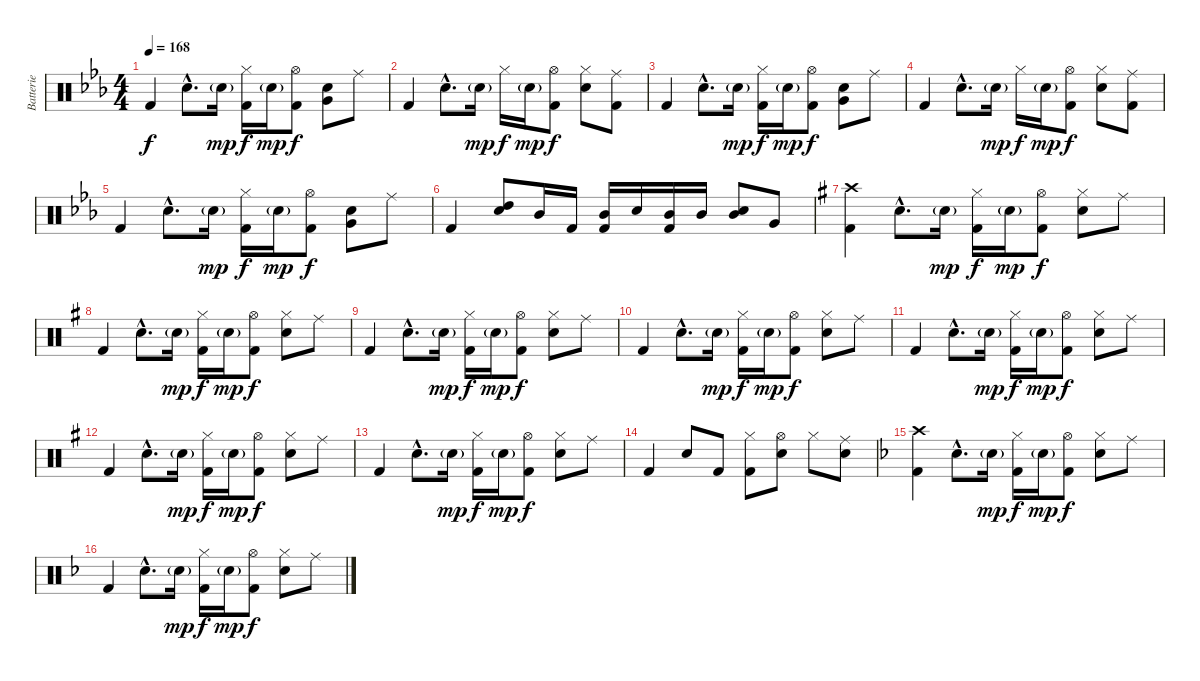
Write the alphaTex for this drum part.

\track ("Batterie" "Batterie") {instrument percussion}
\staff {score}
\articulation defaults
\ts (4 4)
\tempo 168
\clef neutral
\ks eb "Kick (hit) 2".4{dy f} "Snare (hit) 2"{hac}.8{d} "Snare (hit) 2"{g}.16{dy mp}
("Hi-Hat (closed)" "Kick (hit) 2").16{dy f} "Snare (hit) 2"{g}.16{dy mp} ("Hi-Hat (open)" "Kick (hit) 2").8{dy f} ("Snare (hit) 2" "Very Low Tom (hit)").8 "Ride (middle)".8 |
"Kick (hit) 2".4 "Snare (hit) 2"{hac}.8{d} "Snare (hit) 2"{g}.16{dy mp} "Hi-Hat (closed)".16{dy f} "Snare (hit) 2"{g}.16{dy mp} ("Hi-Hat (open)" "Kick (hit) 2").8{dy f} ("Hi-Hat (closed)" "Snare (hit) 2").8 ("Ride (middle)" "Kick (hit) 2").8 |
"Kick (hit) 2".4 "Snare (hit) 2"{hac}.8{d} "Snare (hit) 2"{g}.16{dy mp} ("Hi-Hat (closed)" "Kick (hit) 2").16{dy f} "Snare (hit) 2"{g}.16{dy mp} ("Hi-Hat (open)" "Kick (hit) 2").8{dy f} ("Snare (hit) 2" "Very Low Tom (hit)").8 "Ride (middle)".8 |
"Kick (hit) 2".4 "Snare (hit) 2"{hac}.8{d} "Snare (hit) 2"{g}.16{dy mp} "Hi-Hat (closed)".16{dy f} "Snare (hit) 2"{g}.16{dy mp} ("Hi-Hat (open)" "Kick (hit) 2").8{dy f} ("Hi-Hat (closed)" "Snare (hit) 2").8 ("Ride (middle)" "Kick (hit) 2").8 |
"Kick (hit) 2".4 "Snare (hit) 2"{hac}.8{d} "Snare (hit) 2"{g}.16{dy mp} ("Hi-Hat (closed)" "Kick (hit) 2").16{dy f} "Snare (hit) 2"{g}.16{dy mp} ("Hi-Hat (open)" "Kick (hit) 2").8{dy f} ("Snare (hit) 2" "Very Low Tom (hit)").8 "Ride (middle)".8 |
"Kick (hit) 2".4 ("High Tom (hit)" "Snare (hit) 2").8 "Mid Tom (hit)".16 "Kick (hit) 2".16 ("Mid Tom (hit)" "Kick (hit) 2").16 "Snare (hit) 2".16 ("Mid Tom (hit)" "Kick (hit) 2").16 "Mid Tom (hit)".16 ("Mid Tom (hit)" "Snare (hit) 2").8 "Very Low Tom (hit)".8 |
\ks g
("Crash high (hit)" "Kick (hit) 2").4 "Snare (hit) 2"{hac}.8{d} "Snare (hit) 2"{g}.16{dy mp} ("Hi-Hat (closed)" "Kick (hit) 2").16{dy f} "Snare (hit) 2"{g}.16{dy mp} ("Hi-Hat (open)" "Kick (hit) 2").8{dy f} ("Hi-Hat (closed)" "Snare (hit) 2").8 "Ride (middle)".8 |
"Kick (hit) 2".4 "Snare (hit) 2"{hac}.8{d} "Snare (hit) 2"{g}.16{dy mp} ("Hi-Hat (closed)" "Kick (hit) 2").16{dy f} "Snare (hit) 2"{g}.16{dy mp} ("Hi-Hat (open)" "Kick (hit) 2").8{dy f} ("Hi-Hat (closed)" "Snare (hit) 2").8 "Ride (middle)".8 |
"Kick (hit) 2".4 "Snare (hit) 2"{hac}.8{d} "Snare (hit) 2"{g}.16{dy mp} ("Hi-Hat (closed)" "Kick (hit) 2").16{dy f} "Snare (hit) 2"{g}.16{dy mp} ("Hi-Hat (open)" "Kick (hit) 2").8{dy f} ("Hi-Hat (closed)" "Snare (hit) 2").8 "Ride (middle)".8 |
"Kick (hit) 2".4 "Snare (hit) 2"{hac}.8{d} "Snare (hit) 2"{g}.16{dy mp} ("Hi-Hat (closed)" "Kick (hit) 2").16{dy f} "Snare (hit) 2"{g}.16{dy mp} ("Hi-Hat (open)" "Kick (hit) 2").8{dy f} ("Hi-Hat (closed)" "Snare (hit) 2").8 "Ride (middle)".8 |
"Kick (hit) 2".4 "Snare (hit) 2"{hac}.8{d} "Snare (hit) 2"{g}.16{dy mp} ("Hi-Hat (closed)" "Kick (hit) 2").16{dy f} "Snare (hit) 2"{g}.16{dy mp} ("Hi-Hat (open)" "Kick (hit) 2").8{dy f} ("Hi-Hat (closed)" "Snare (hit) 2").8 "Ride (middle)".8 |
"Kick (hit) 2".4 "Snare (hit) 2"{hac}.8{d} "Snare (hit) 2"{g}.16{dy mp} ("Hi-Hat (closed)" "Kick (hit) 2").16{dy f} "Snare (hit) 2"{g}.16{dy mp} ("Hi-Hat (open)" "Kick (hit) 2").8{dy f} ("Hi-Hat (closed)" "Snare (hit) 2").8 "Ride (middle)".8 |
"Kick (hit) 2".4 "Snare (hit) 2"{hac}.8{d} "Snare (hit) 2"{g}.16{dy mp} ("Hi-Hat (closed)" "Kick (hit) 2").16{dy f} "Snare (hit) 2"{g}.16{dy mp} ("Hi-Hat (open)" "Kick (hit) 2").8{dy f} ("Hi-Hat (closed)" "Snare (hit) 2").8 "Ride (middle)".8 |
"Kick (hit) 2".4 "Snare (hit) 2".8 "Kick (hit) 2".8 ("Hi-Hat (closed)" "Kick (hit) 2").8 ("Hi-Hat (open)" "Snare (hit) 2").8 "Hi-Hat (closed)".8 ("Ride (middle)" "Snare (hit) 2").8 |
\ks f
("Crash high (hit)" "Kick (hit) 2").4 "Snare (hit) 2"{hac}.8{d} "Snare (hit) 2"{g}.16{dy mp} ("Hi-Hat (closed)" "Kick (hit) 2").16{dy f} "Snare (hit) 2"{g}.16{dy mp} ("Hi-Hat (open)" "Kick (hit) 2").8{dy f} ("Hi-Hat (closed)" "Snare (hit) 2").8 "Ride (middle)".8 |
"Kick (hit) 2".4 "Snare (hit) 2"{hac}.8{d} "Snare (hit) 2"{g}.16{dy mp} ("Hi-Hat (closed)" "Kick (hit) 2").16{dy f} "Snare (hit) 2"{g}.16{dy mp} ("Hi-Hat (open)" "Kick (hit) 2").8{dy f} ("Hi-Hat (closed)" "Snare (hit) 2").8 "Ride (middle)".8
